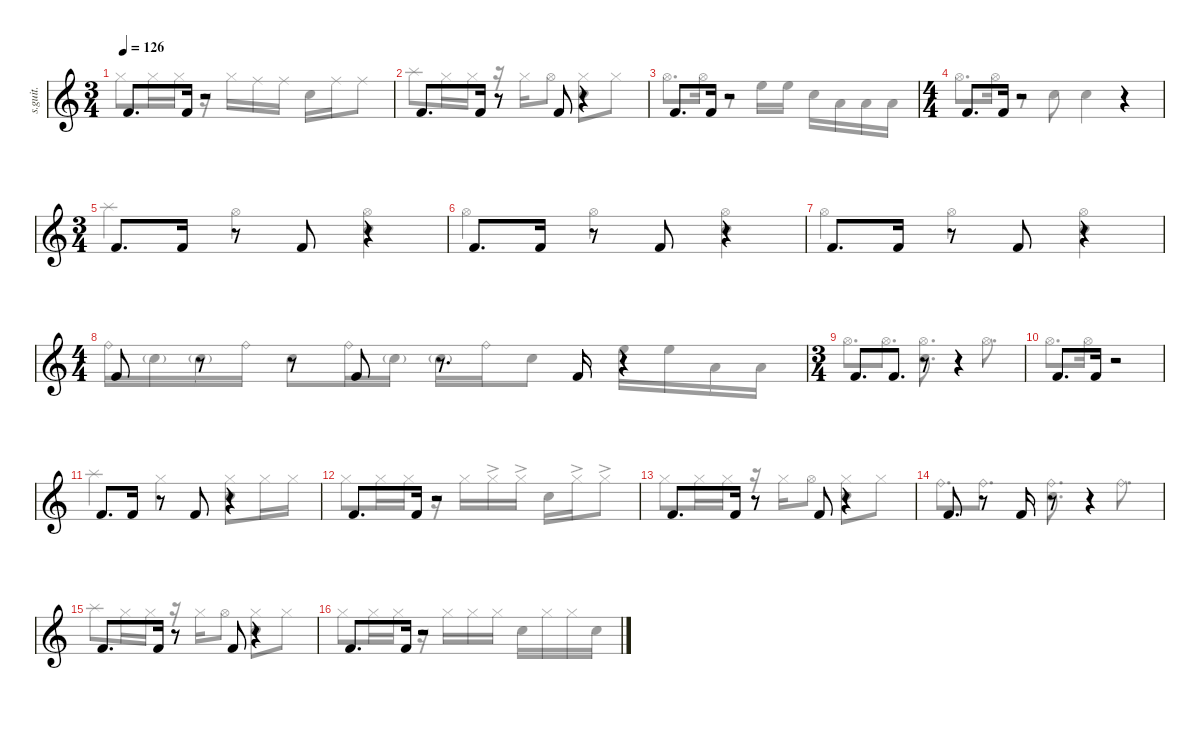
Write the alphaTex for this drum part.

\defaultSystemsLayout 4
\hideDynamics
\bracketExtendMode nobrackets
\track ("Percussion" "s.guit.") {instrument percussion}
\staff {score}
\articulation defaults
\voice
\ts (3 4)
\tempo 126
\clef g2
\ks c "Kick (hit) 2".8{d lyrics (0 "") lyrics (1 "") lyrics (2 "") lyrics (3 "") lyrics (4 "") dy mf} "Kick (hit) 2".16{lyrics (0 "") lyrics (1 "") lyrics (2 "") lyrics (3 "") lyrics (4 "")}
r.2 |
"Kick (hit) 2".8{d lyrics (0 "") lyrics (1 "") lyrics (2 "") lyrics (3 "") lyrics (4 "")} "Kick (hit) 2".16{lyrics (0 "") lyrics (1 "") lyrics (2 "") lyrics (3 "") lyrics (4 "")} r.8 "Kick (hit) 2".8{lyrics (0 "") lyrics (1 "") lyrics (2 "") lyrics (3 "") lyrics (4 "")} r.4 |
"Kick (hit) 2".8{d lyrics (0 "") lyrics (1 "") lyrics (2 "") lyrics (3 "") lyrics (4 "")} "Kick (hit) 2".16{lyrics (0 "") lyrics (1 "") lyrics (2 "") lyrics (3 "") lyrics (4 "")} r.2 |
\ts (4 4)
\beaming (8 2 2 2 2)
"Kick (hit) 2".8{d lyrics (0 "") lyrics (1 "") lyrics (2 "") lyrics (3 "") lyrics (4 "")} "Kick (hit) 2".16{lyrics (0 "") lyrics (1 "") lyrics (2 "") lyrics (3 "") lyrics (4 "")} r.2 r.4 |
\ts (3 4)
\beaming (8 2 2 2 2)
"Kick (hit) 2".8{d lyrics (0 "") lyrics (1 "") lyrics (2 "") lyrics (3 "") lyrics (4 "")} "Kick (hit) 2".16{lyrics (0 "") lyrics (1 "") lyrics (2 "") lyrics (3 "") lyrics (4 "")} r.8 "Kick (hit) 2".8{lyrics (0 "") lyrics (1 "") lyrics (2 "") lyrics (3 "") lyrics (4 "")} r.4 |
"Kick (hit) 2".8{d lyrics (0 "") lyrics (1 "") lyrics (2 "") lyrics (3 "") lyrics (4 "")} "Kick (hit) 2".16{lyrics (0 "") lyrics (1 "") lyrics (2 "") lyrics (3 "") lyrics (4 "")} r.8 "Kick (hit) 2".8{lyrics (0 "") lyrics (1 "") lyrics (2 "") lyrics (3 "") lyrics (4 "")} r.4 |
"Kick (hit) 2".8{d lyrics (0 "") lyrics (1 "") lyrics (2 "") lyrics (3 "") lyrics (4 "")} "Kick (hit) 2".16{lyrics (0 "") lyrics (1 "") lyrics (2 "") lyrics (3 "") lyrics (4 "")} r.8 "Kick (hit) 2".8{lyrics (0 "") lyrics (1 "") lyrics (2 "") lyrics (3 "") lyrics (4 "")} r.4 |
\ts (4 4)
\beaming (8 2 2 2 2)
"Kick (hit) 2".8{lyrics (0 "") lyrics (1 "") lyrics (2 "") lyrics (3 "") lyrics (4 "")} r.8 r.8 "Kick (hit) 2".8{lyrics (0 "") lyrics (1 "") lyrics (2 "") lyrics (3 "") lyrics (4 "")} r.8{d} "Kick (hit) 2".16{lyrics (0 "") lyrics (1 "") lyrics (2 "") lyrics (3 "") lyrics (4 "")} r.4 |
\ts (3 4)
\beaming (8 2 2 2 2)
"Kick (hit) 2".8{d lyrics (0 "") lyrics (1 "") lyrics (2 "") lyrics (3 "") lyrics (4 "")} "Kick (hit) 2".8{d lyrics (0 "") lyrics (1 "") lyrics (2 "") lyrics (3 "") lyrics (4 "")} r.8 r.4 |
"Kick (hit) 2".8{d lyrics (0 "") lyrics (1 "") lyrics (2 "") lyrics (3 "") lyrics (4 "")} "Kick (hit) 2".16{lyrics (0 "") lyrics (1 "") lyrics (2 "") lyrics (3 "") lyrics (4 "")} r.2 |
"Kick (hit) 2".8{d lyrics (0 "") lyrics (1 "") lyrics (2 "") lyrics (3 "") lyrics (4 "")} "Kick (hit) 2".16{lyrics (0 "") lyrics (1 "") lyrics (2 "") lyrics (3 "") lyrics (4 "")} r.8 "Kick (hit) 2".8{lyrics (0 "") lyrics (1 "") lyrics (2 "") lyrics (3 "") lyrics (4 "")} r.4 |
"Kick (hit) 2".8{d lyrics (0 "") lyrics (1 "") lyrics (2 "") lyrics (3 "") lyrics (4 "")} "Kick (hit) 2".16{lyrics (0 "") lyrics (1 "") lyrics (2 "") lyrics (3 "") lyrics (4 "")} r.2 |
"Kick (hit) 2".8{d lyrics (0 "") lyrics (1 "") lyrics (2 "") lyrics (3 "") lyrics (4 "")} "Kick (hit) 2".16{lyrics (0 "") lyrics (1 "") lyrics (2 "") lyrics (3 "") lyrics (4 "")} r.8 "Kick (hit) 2".8{lyrics (0 "") lyrics (1 "") lyrics (2 "") lyrics (3 "") lyrics (4 "")} r.4 |
"Kick (hit) 2".8{d lyrics (0 "") lyrics (1 "") lyrics (2 "") lyrics (3 "") lyrics (4 "")} r.8 "Kick (hit) 2".16{lyrics (0 "") lyrics (1 "") lyrics (2 "") lyrics (3 "") lyrics (4 "")} r.8 r.4 |
"Kick (hit) 2".8{d lyrics (0 "") lyrics (1 "") lyrics (2 "") lyrics (3 "") lyrics (4 "")} "Kick (hit) 2".16{lyrics (0 "") lyrics (1 "") lyrics (2 "") lyrics (3 "") lyrics (4 "")} r.8 "Kick (hit) 2".8{lyrics (0 "") lyrics (1 "") lyrics (2 "") lyrics (3 "") lyrics (4 "")} r.4 |
"Kick (hit) 2".8{d lyrics (0 "") lyrics (1 "") lyrics (2 "") lyrics (3 "") lyrics (4 "")} "Kick (hit) 2".16{lyrics (0 "") lyrics (1 "") lyrics (2 "") lyrics (3 "") lyrics (4 "")} r.2
\voice
\clef g2
\ottava regular
\simile none
\ks c "Hi-Hat (closed)".8{lyrics (0 "") lyrics (1 "") lyrics (2 "") lyrics (3 "") lyrics (4 "") dy mf} "Hi-Hat (closed)".16{lyrics (0 "") lyrics (1 "") lyrics (2 "") lyrics (3 "") lyrics (4 "")} "Hi-Hat (closed)".16{lyrics (0 "") lyrics (1 "") lyrics (2 "") lyrics (3 "") lyrics (4 "")}
r.16 "Hi-Hat (closed)".16{lyrics (0 "") lyrics (1 "") lyrics (2 "") lyrics (3 "") lyrics (4 "")} "Ride (middle)".16{lyrics (0 "") lyrics (1 "") lyrics (2 "") lyrics (3 "") lyrics (4 "")} "Ride (middle)".16{lyrics (0 "") lyrics (1 "") lyrics (2 "") lyrics (3 "") lyrics (4 "")} "Snare (hit) 2".16{lyrics (0 "") lyrics (1 "") lyrics (2 "") lyrics (3 "") lyrics (4 "")} "Ride (middle)".16{lyrics (0 "") lyrics (1 "") lyrics (2 "") lyrics (3 "") lyrics (4 "")} "Ride (middle)".8{lyrics (0 "") lyrics (1 "") lyrics (2 "") lyrics (3 "") lyrics (4 "")} |
"Splash (hit)".8{lyrics (0 "") lyrics (1 "") lyrics (2 "") lyrics (3 "") lyrics (4 "")} "Hi-Hat (closed)".16{lyrics (0 "") lyrics (1 "") lyrics (2 "") lyrics (3 "") lyrics (4 "")} "Hi-Hat (closed)".16{lyrics (0 "") lyrics (1 "") lyrics (2 "") lyrics (3 "") lyrics (4 "")} r.16 "Hi-Hat (closed)".16{lyrics (0 "") lyrics (1 "") lyrics (2 "") lyrics (3 "") lyrics (4 "")} "Hi-Hat (open)".8{lyrics (0 "") lyrics (1 "") lyrics (2 "") lyrics (3 "") lyrics (4 "")} ("Hi-Hat (closed)" "Snare (hit) 2").8{lyrics (0 "") lyrics (1 "") lyrics (2 "") lyrics (3 "") lyrics (4 "")} "Hi-Hat (closed)".8{lyrics (0 "") lyrics (1 "") lyrics (2 "") lyrics (3 "") lyrics (4 "")} |
"Hi-Hat (open)".8{d lyrics (0 "") lyrics (1 "") lyrics (2 "") lyrics (3 "") lyrics (4 "")} "Hi-Hat (open)".16{lyrics (0 "") lyrics (1 "") lyrics (2 "") lyrics (3 "") lyrics (4 "")} r.8 "High Floor Tom (hit)".16{lyrics (0 "") lyrics (1 "") lyrics (2 "") lyrics (3 "") lyrics (4 "")} "High Floor Tom (hit)".16{lyrics (0 "") lyrics (1 "") lyrics (2 "") lyrics (3 "") lyrics (4 "")} "Snare (hit) 2".16{lyrics (0 "") lyrics (1 "") lyrics (2 "") lyrics (3 "") lyrics (4 "")} "Low Tom (hit)".16{lyrics (0 "") lyrics (1 "") lyrics (2 "") lyrics (3 "") lyrics (4 "")} "Low Tom (hit)".16{lyrics (0 "") lyrics (1 "") lyrics (2 "") lyrics (3 "") lyrics (4 "")} "Low Tom (hit)".16{lyrics (0 "") lyrics (1 "") lyrics (2 "") lyrics (3 "") lyrics (4 "")} |
"Hi-Hat (open)".8{d lyrics (0 "") lyrics (1 "") lyrics (2 "") lyrics (3 "") lyrics (4 "")} "Hi-Hat (open)".16{lyrics (0 "") lyrics (1 "") lyrics (2 "") lyrics (3 "") lyrics (4 "")} r.8 "Snare (hit) 2".8{lyrics (0 "") lyrics (1 "") lyrics (2 "") lyrics (3 "") lyrics (4 "")} "Snare (hit) 2".4{lyrics (0 "") lyrics (1 "") lyrics (2 "") lyrics (3 "") lyrics (4 "")} r.4 |
"Splash (hit)".4{lyrics (0 "") lyrics (1 "") lyrics (2 "") lyrics (3 "") lyrics (4 "")} "Hi-Hat (open)".4{lyrics (0 "") lyrics (1 "") lyrics (2 "") lyrics (3 "") lyrics (4 "")} ("Hi-Hat (open)" "Snare (hit) 2").4{lyrics (0 "") lyrics (1 "") lyrics (2 "") lyrics (3 "") lyrics (4 "")} |
"Hi-Hat (open)".4{lyrics (0 "") lyrics (1 "") lyrics (2 "") lyrics (3 "") lyrics (4 "")} "Hi-Hat (open)".4{lyrics (0 "") lyrics (1 "") lyrics (2 "") lyrics (3 "") lyrics (4 "")} ("Hi-Hat (open)" "Snare (hit) 2").4{lyrics (0 "") lyrics (1 "") lyrics (2 "") lyrics (3 "") lyrics (4 "")} |
"Hi-Hat (open)".4{lyrics (0 "") lyrics (1 "") lyrics (2 "") lyrics (3 "") lyrics (4 "")} "Hi-Hat (open)".4{lyrics (0 "") lyrics (1 "") lyrics (2 "") lyrics (3 "") lyrics (4 "")} ("Hi-Hat (open)" "Snare (hit) 2").4{lyrics (0 "") lyrics (1 "") lyrics (2 "") lyrics (3 "") lyrics (4 "")} |
"Ride (bell)".16{lyrics (0 "") lyrics (1 "") lyrics (2 "") lyrics (3 "") lyrics (4 "")} "Snare (hit) 2"{g}.16{lyrics (0 "") lyrics (1 "") lyrics (2 "") lyrics (3 "") lyrics (4 "")} "Snare (hit) 2"{g}.16{lyrics (0 "") lyrics (1 "") lyrics (2 "") lyrics (3 "") lyrics (4 "")} "Ride (bell)".16{lyrics (0 "") lyrics (1 "") lyrics (2 "") lyrics (3 "") lyrics (4 "")} "Snare (hit) 2".8{lyrics (0 "") lyrics (1 "") lyrics (2 "") lyrics (3 "") lyrics (4 "")} "Ride (bell)".16{lyrics (0 "") lyrics (1 "") lyrics (2 "") lyrics (3 "") lyrics (4 "")} "Snare (hit) 2"{g}.16{lyrics (0 "") lyrics (1 "") lyrics (2 "") lyrics (3 "") lyrics (4 "")} "Snare (hit) 2"{g}.16{lyrics (0 "") lyrics (1 "") lyrics (2 "") lyrics (3 "") lyrics (4 "")} "Ride (bell)".16{lyrics (0 "") lyrics (1 "") lyrics (2 "") lyrics (3 "") lyrics (4 "")} "Snare (hit) 2".8{lyrics (0 "") lyrics (1 "") lyrics (2 "") lyrics (3 "") lyrics (4 "")} "High Floor Tom (hit)".16{lyrics (0 "") lyrics (1 "") lyrics (2 "") lyrics (3 "") lyrics (4 "")} "High Floor Tom (hit)".16{lyrics (0 "") lyrics (1 "") lyrics (2 "") lyrics (3 "") lyrics (4 "")} "Low Tom (hit)".16{lyrics (0 "") lyrics (1 "") lyrics (2 "") lyrics (3 "") lyrics (4 "")} "Low Tom (hit)".16{lyrics (0 "") lyrics (1 "") lyrics (2 "") lyrics (3 "") lyrics (4 "")} |
"Hi-Hat (open)".8{d lyrics (0 "") lyrics (1 "") lyrics (2 "") lyrics (3 "") lyrics (4 "")} "Hi-Hat (open)".8{d lyrics (0 "") lyrics (1 "") lyrics (2 "") lyrics (3 "") lyrics (4 "")} ("Hi-Hat (open)" "Snare (hit) 2").8{d lyrics (0 "") lyrics (1 "") lyrics (2 "") lyrics (3 "") lyrics (4 "")} "Hi-Hat (open)".8{d lyrics (0 "") lyrics (1 "") lyrics (2 "") lyrics (3 "") lyrics (4 "")} |
"Hi-Hat (open)".8{d lyrics (0 "") lyrics (1 "") lyrics (2 "") lyrics (3 "") lyrics (4 "")} "Hi-Hat (open)".16{lyrics (0 "") lyrics (1 "") lyrics (2 "") lyrics (3 "") lyrics (4 "")} r.2 |
"Splash (hit)".4{lyrics (0 "") lyrics (1 "") lyrics (2 "") lyrics (3 "") lyrics (4 "")} "Hi-Hat (closed)".4{lyrics (0 "") lyrics (1 "") lyrics (2 "") lyrics (3 "") lyrics (4 "")} ("Hi-Hat (closed)" "Snare (hit) 2").8{lyrics (0 "") lyrics (1 "") lyrics (2 "") lyrics (3 "") lyrics (4 "")} "Hi-Hat (closed)".16{lyrics (0 "") lyrics (1 "") lyrics (2 "") lyrics (3 "") lyrics (4 "")} "Hi-Hat (closed)".16{lyrics (0 "") lyrics (1 "") lyrics (2 "") lyrics (3 "") lyrics (4 "")} |
"Hi-Hat (closed)".8{lyrics (0 "") lyrics (1 "") lyrics (2 "") lyrics (3 "") lyrics (4 "")} "Hi-Hat (closed)".16{lyrics (0 "") lyrics (1 "") lyrics (2 "") lyrics (3 "") lyrics (4 "")} "Hi-Hat (closed)".16{lyrics (0 "") lyrics (1 "") lyrics (2 "") lyrics (3 "") lyrics (4 "")} r.16 "Hi-Hat (closed)".16{lyrics (0 "") lyrics (1 "") lyrics (2 "") lyrics (3 "") lyrics (4 "")} "Hi-Hat (closed)"{ac}.16{lyrics (0 "") lyrics (1 "") lyrics (2 "") lyrics (3 "") lyrics (4 "")} "Hi-Hat (closed)"{ac}.16{lyrics (0 "") lyrics (1 "") lyrics (2 "") lyrics (3 "") lyrics (4 "")} "Snare (hit) 2".16{lyrics (0 "") lyrics (1 "") lyrics (2 "") lyrics (3 "") lyrics (4 "")} "Hi-Hat (closed)"{ac}.16{lyrics (0 "") lyrics (1 "") lyrics (2 "") lyrics (3 "") lyrics (4 "")} "Hi-Hat (closed)"{ac}.8{lyrics (0 "") lyrics (1 "") lyrics (2 "") lyrics (3 "") lyrics (4 "")} |
"Hi-Hat (closed)".8{lyrics (0 "") lyrics (1 "") lyrics (2 "") lyrics (3 "") lyrics (4 "")} "Hi-Hat (closed)".16{lyrics (0 "") lyrics (1 "") lyrics (2 "") lyrics (3 "") lyrics (4 "")} "Hi-Hat (closed)".16{lyrics (0 "") lyrics (1 "") lyrics (2 "") lyrics (3 "") lyrics (4 "")} r.16 "Hi-Hat (closed)".16{lyrics (0 "") lyrics (1 "") lyrics (2 "") lyrics (3 "") lyrics (4 "")} "Hi-Hat (open)".8{lyrics (0 "") lyrics (1 "") lyrics (2 "") lyrics (3 "") lyrics (4 "")} ("Hi-Hat (closed)" "Snare (hit) 2").8{lyrics (0 "") lyrics (1 "") lyrics (2 "") lyrics (3 "") lyrics (4 "")} "Hi-Hat (closed)".8{lyrics (0 "") lyrics (1 "") lyrics (2 "") lyrics (3 "") lyrics (4 "")} |
"Ride (bell)".8{d lyrics (0 "") lyrics (1 "") lyrics (2 "") lyrics (3 "") lyrics (4 "")} "Ride (bell)".8{d lyrics (0 "") lyrics (1 "") lyrics (2 "") lyrics (3 "") lyrics (4 "")} ("Ride (bell)" "Snare (hit) 2").8{d lyrics (0 "") lyrics (1 "") lyrics (2 "") lyrics (3 "") lyrics (4 "")} "Ride (bell)".8{d lyrics (0 "") lyrics (1 "") lyrics (2 "") lyrics (3 "") lyrics (4 "")} |
"Splash (hit)".8{lyrics (0 "") lyrics (1 "") lyrics (2 "") lyrics (3 "") lyrics (4 "")} "Hi-Hat (closed)".16{lyrics (0 "") lyrics (1 "") lyrics (2 "") lyrics (3 "") lyrics (4 "")} "Hi-Hat (closed)".16{lyrics (0 "") lyrics (1 "") lyrics (2 "") lyrics (3 "") lyrics (4 "")} r.16 "Hi-Hat (closed)".16{lyrics (0 "") lyrics (1 "") lyrics (2 "") lyrics (3 "") lyrics (4 "")} "Hi-Hat (open)".8{lyrics (0 "") lyrics (1 "") lyrics (2 "") lyrics (3 "") lyrics (4 "")} ("Hi-Hat (closed)" "Snare (hit) 2").8{lyrics (0 "") lyrics (1 "") lyrics (2 "") lyrics (3 "") lyrics (4 "")} "Hi-Hat (closed)".8{lyrics (0 "") lyrics (1 "") lyrics (2 "") lyrics (3 "") lyrics (4 "")} |
"Hi-Hat (closed)".8{lyrics (0 "") lyrics (1 "") lyrics (2 "") lyrics (3 "") lyrics (4 "")} "Hi-Hat (closed)".16{lyrics (0 "") lyrics (1 "") lyrics (2 "") lyrics (3 "") lyrics (4 "")} "Hi-Hat (closed)".16{lyrics (0 "") lyrics (1 "") lyrics (2 "") lyrics (3 "") lyrics (4 "")} r.16 "Hi-Hat (closed)".16{lyrics (0 "") lyrics (1 "") lyrics (2 "") lyrics (3 "") lyrics (4 "")} "Hi-Hat (closed)".16{lyrics (0 "") lyrics (1 "") lyrics (2 "") lyrics (3 "") lyrics (4 "")} "Hi-Hat (closed)".16{lyrics (0 "") lyrics (1 "") lyrics (2 "") lyrics (3 "") lyrics (4 "")} "Snare (hit) 2".16{lyrics (0 "") lyrics (1 "") lyrics (2 "") lyrics (3 "") lyrics (4 "")} "Hi-Hat (closed)".16{lyrics (0 "") lyrics (1 "") lyrics (2 "") lyrics (3 "") lyrics (4 "")} "Hi-Hat (closed)".16{lyrics (0 "") lyrics (1 "") lyrics (2 "") lyrics (3 "") lyrics (4 "")} "Snare (hit) 2".16{lyrics (0 "") lyrics (1 "") lyrics (2 "") lyrics (3 "") lyrics (4 "")}
